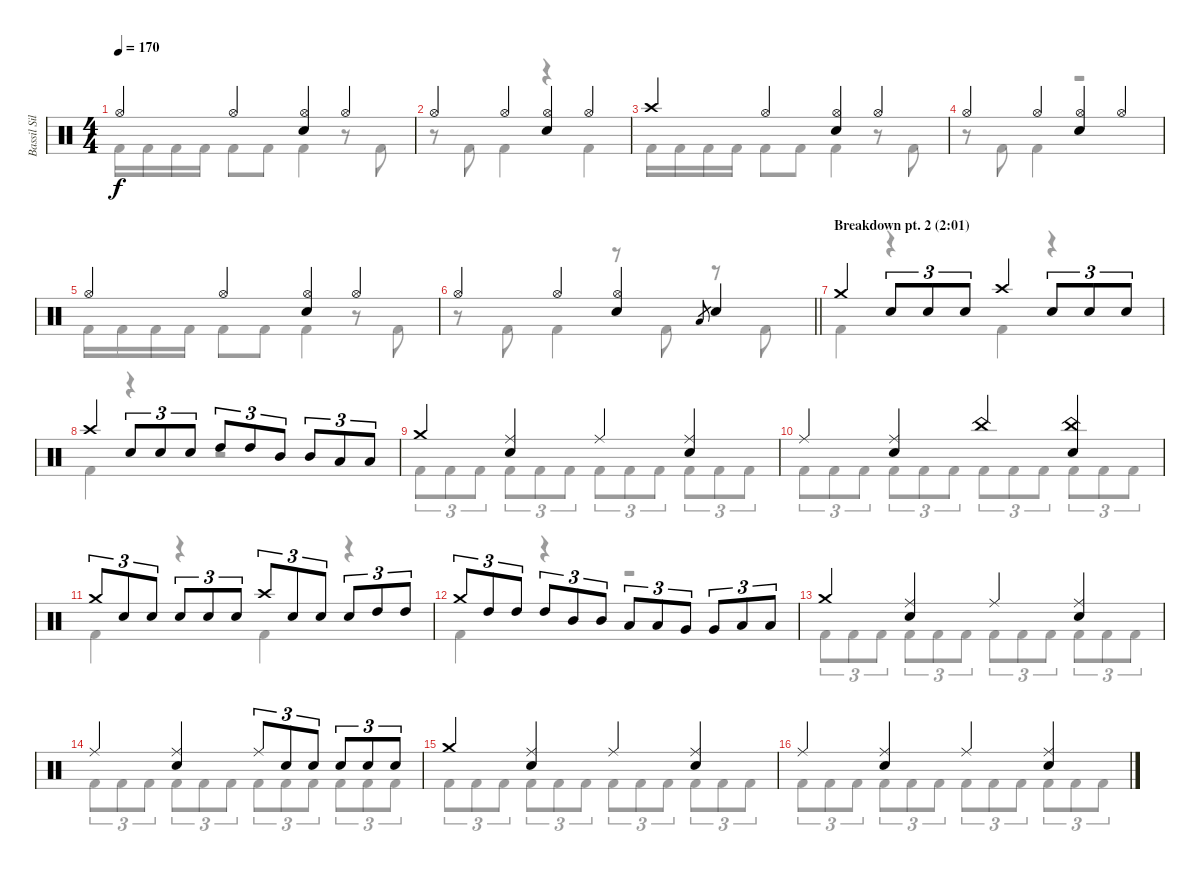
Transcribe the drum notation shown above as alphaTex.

\track ("Bassil Silver-Hajo" "Bassil Sil") {instrument percussion}
\staff {score}
\articulation defaults
\voice
\ts (4 4)
\tempo 170
\clef neutral
\ks c "Hi-Hat (open)".4{dy f} "Hi-Hat (open)".4
("Hi-Hat (open)" "Snare (hit) 2").4 "Hi-Hat (open)".4 |
"Hi-Hat (open)".4 "Hi-Hat (open)".4 ("Hi-Hat (open)" "Snare (hit) 2").4 "Hi-Hat (open)".4 |
"Crash high (hit)".4 "Hi-Hat (open)".4 ("Hi-Hat (open)" "Snare (hit) 2").4 "Hi-Hat (open)".4 |
"Hi-Hat (open)".4 "Hi-Hat (open)".4 ("Hi-Hat (open)" "Snare (hit) 2").4 "Hi-Hat (open)".4 |
"Hi-Hat (open)".4 "Hi-Hat (open)".4 ("Hi-Hat (open)" "Snare (hit) 2").4 "Hi-Hat (open)".4 |
\barLineRight lightlight "Hi-Hat (open)".4 "Hi-Hat (open)".4
("Hi-Hat (open)" "Snare (hit) 2").4 "Low Floor Tom (hit)".8{gr} "Snare (hit) 2".4 |
\section ("" "Breakdown pt. 2 (2:01)")
"Crash medium (hit)".4 "Snare (hit) 2".8{tu (3 2)} "Snare (hit) 2".8{tu (3 2)} "Snare (hit) 2".8{tu (3 2)} "Crash high (hit)".4 "Snare (hit) 2".8{tu (3 2)} "Snare (hit) 2".8{tu (3 2)} "Snare (hit) 2".8{tu (3 2)} |
"Crash high (hit)".4 "Snare (hit) 2".8{tu (3 2)} "Snare (hit) 2".8{tu (3 2)} "Snare (hit) 2".8{tu (3 2)} "High Tom (hit)".8{tu (3 2)} "High Tom (hit)".8{tu (3 2)} "Mid Tom (hit)".8{tu (3 2)} "Mid Tom (hit)".8{tu (3 2)} "Low Tom (hit)".8{tu (3 2)} "Low Tom (hit)".8{tu (3 2)} |
"Crash medium (hit)".4 ("Ride (middle)" "Snare (hit) 2").4 "Ride (middle)".4 ("Ride (middle)" "Snare (hit) 2").4 |
"Ride (middle)".4 ("Ride (middle)" "Snare (hit) 2").4 "China (hit)".4 ("China (hit)" "Snare (hit) 2").4 |
"Crash medium (hit)".8{tu (3 2)} "Snare (hit) 2".8{tu (3 2)} "Snare (hit) 2".8{tu (3 2)} "Snare (hit) 2".8{tu (3 2)} "Snare (hit) 2".8{tu (3 2)} "Snare (hit) 2".8{tu (3 2)} "Crash high (hit)".8{tu (3 2)} "Snare (hit) 2".8{tu (3 2)} "Snare (hit) 2".8{tu (3 2)} "Snare (hit) 2".8{tu (3 2)} "High Tom (hit)".8{tu (3 2)} "High Tom (hit)".8{tu (3 2)} |
"Crash medium (hit)".8{tu (3 2)} "High Tom (hit)".8{tu (3 2)} "High Tom (hit)".8{tu (3 2)} "High Tom (hit)".8{tu (3 2)} "Mid Tom (hit)".8{tu (3 2)} "Mid Tom (hit)".8{tu (3 2)} "Low Tom (hit)".8{tu (3 2)} "Low Tom (hit)".8{tu (3 2)} "Very Low Tom (hit)".8{tu (3 2)} "Very Low Tom (hit)".8{tu (3 2)} "Low Floor Tom (hit)".8{tu (3 2)} "Low Floor Tom (hit)".8{tu (3 2)} |
"Crash medium (hit)".4 ("Ride (middle)" "Snare (hit) 2").4 "Ride (middle)".4 ("Ride (middle)" "Snare (hit) 2").4 |
"Ride (middle)".4 ("Ride (middle)" "Snare (hit) 2").4 "Ride (middle)".8{tu (3 2)} "Snare (hit) 2".8{tu (3 2)} "Snare (hit) 2".8{tu (3 2)} "Snare (hit) 2".8{tu (3 2)} "Snare (hit) 2".8{tu (3 2)} "Snare (hit) 2".8{tu (3 2)} |
"Crash medium (hit)".4 ("Ride (middle)" "Snare (hit) 2").4 "Ride (middle)".4 ("Ride (middle)" "Snare (hit) 2").4 |
"Ride (middle)".4 ("Ride (middle)" "Snare (hit) 2").4 "Ride (middle)".4 ("Ride (middle)" "Snare (hit) 2").4
\voice
\clef neutral
\ottava regular
\simile none
\ks c "Kick (hit) 2".16{dy f} "Kick (hit) 2".16 "Kick (hit) 2".16 "Kick (hit) 2".16 "Kick (hit) 2".8 "Kick (hit) 2".8 "Kick (hit) 2".4
r.8 "Kick (hit) 2".8 |
r.8 "Kick (hit) 2".8 "Kick (hit) 2".4 r.4 "Kick (hit) 2".4 |
"Kick (hit) 2".16 "Kick (hit) 2".16 "Kick (hit) 2".16 "Kick (hit) 2".16 "Kick (hit) 2".8 "Kick (hit) 2".8 "Kick (hit) 2".4 r.8 "Kick (hit) 2".8 |
r.8 "Kick (hit) 2".8 "Kick (hit) 2".4 r.2 |
"Kick (hit) 2".16 "Kick (hit) 2".16 "Kick (hit) 2".16 "Kick (hit) 2".16 "Kick (hit) 2".8 "Kick (hit) 2".8 "Kick (hit) 2".4 r.8 "Kick (hit) 2".8 |
\barLineRight lightlight
r.8 "Kick (hit) 2".8 "Kick (hit) 2".4 r.8 "Kick (hit) 2".8 r.8 "Kick (hit) 2".8 |
"Kick (hit) 2".4 r.4 "Kick (hit) 2".4 r.4 |
"Kick (hit) 2".4 r.4 r.2 |
"Kick (hit) 2".8{tu (3 2)} "Kick (hit) 2".8{tu (3 2)} "Kick (hit) 2".8{tu (3 2)} "Kick (hit) 2".8{tu (3 2)} "Kick (hit) 2".8{tu (3 2)} "Kick (hit) 2".8{tu (3 2)} "Kick (hit) 2".8{tu (3 2)} "Kick (hit) 2".8{tu (3 2)} "Kick (hit) 2".8{tu (3 2)} "Kick (hit) 2".8{tu (3 2)} "Kick (hit) 2".8{tu (3 2)} "Kick (hit) 2".8{tu (3 2)} |
"Kick (hit) 2".8{tu (3 2)} "Kick (hit) 2".8{tu (3 2)} "Kick (hit) 2".8{tu (3 2)} "Kick (hit) 2".8{tu (3 2)} "Kick (hit) 2".8{tu (3 2)} "Kick (hit) 2".8{tu (3 2)} "Kick (hit) 2".8{tu (3 2)} "Kick (hit) 2".8{tu (3 2)} "Kick (hit) 2".8{tu (3 2)} "Kick (hit) 2".8{tu (3 2)} "Kick (hit) 2".8{tu (3 2)} "Kick (hit) 2".8{tu (3 2)} |
"Kick (hit) 2".4 r.4 "Kick (hit) 2".4 r.4 |
"Kick (hit) 2".4 r.4 r.2 |
"Kick (hit) 2".8{tu (3 2)} "Kick (hit) 2".8{tu (3 2)} "Kick (hit) 2".8{tu (3 2)} "Kick (hit) 2".8{tu (3 2)} "Kick (hit) 2".8{tu (3 2)} "Kick (hit) 2".8{tu (3 2)} "Kick (hit) 2".8{tu (3 2)} "Kick (hit) 2".8{tu (3 2)} "Kick (hit) 2".8{tu (3 2)} "Kick (hit) 2".8{tu (3 2)} "Kick (hit) 2".8{tu (3 2)} "Kick (hit) 2".8{tu (3 2)} |
"Kick (hit) 2".8{tu (3 2)} "Kick (hit) 2".8{tu (3 2)} "Kick (hit) 2".8{tu (3 2)} "Kick (hit) 2".8{tu (3 2)} "Kick (hit) 2".8{tu (3 2)} "Kick (hit) 2".8{tu (3 2)} "Kick (hit) 2".8{tu (3 2)} "Kick (hit) 2".8{tu (3 2)} "Kick (hit) 2".8{tu (3 2)} "Kick (hit) 2".8{tu (3 2)} "Kick (hit) 2".8{tu (3 2)} "Kick (hit) 2".8{tu (3 2)} |
"Kick (hit) 2".8{tu (3 2)} "Kick (hit) 2".8{tu (3 2)} "Kick (hit) 2".8{tu (3 2)} "Kick (hit) 2".8{tu (3 2)} "Kick (hit) 2".8{tu (3 2)} "Kick (hit) 2".8{tu (3 2)} "Kick (hit) 2".8{tu (3 2)} "Kick (hit) 2".8{tu (3 2)} "Kick (hit) 2".8{tu (3 2)} "Kick (hit) 2".8{tu (3 2)} "Kick (hit) 2".8{tu (3 2)} "Kick (hit) 2".8{tu (3 2)} |
"Kick (hit) 2".8{tu (3 2)} "Kick (hit) 2".8{tu (3 2)} "Kick (hit) 2".8{tu (3 2)} "Kick (hit) 2".8{tu (3 2)} "Kick (hit) 2".8{tu (3 2)} "Kick (hit) 2".8{tu (3 2)} "Kick (hit) 2".8{tu (3 2)} "Kick (hit) 2".8{tu (3 2)} "Kick (hit) 2".8{tu (3 2)} "Kick (hit) 2".8{tu (3 2)} "Kick (hit) 2".8{tu (3 2)} "Kick (hit) 2".8{tu (3 2)}
